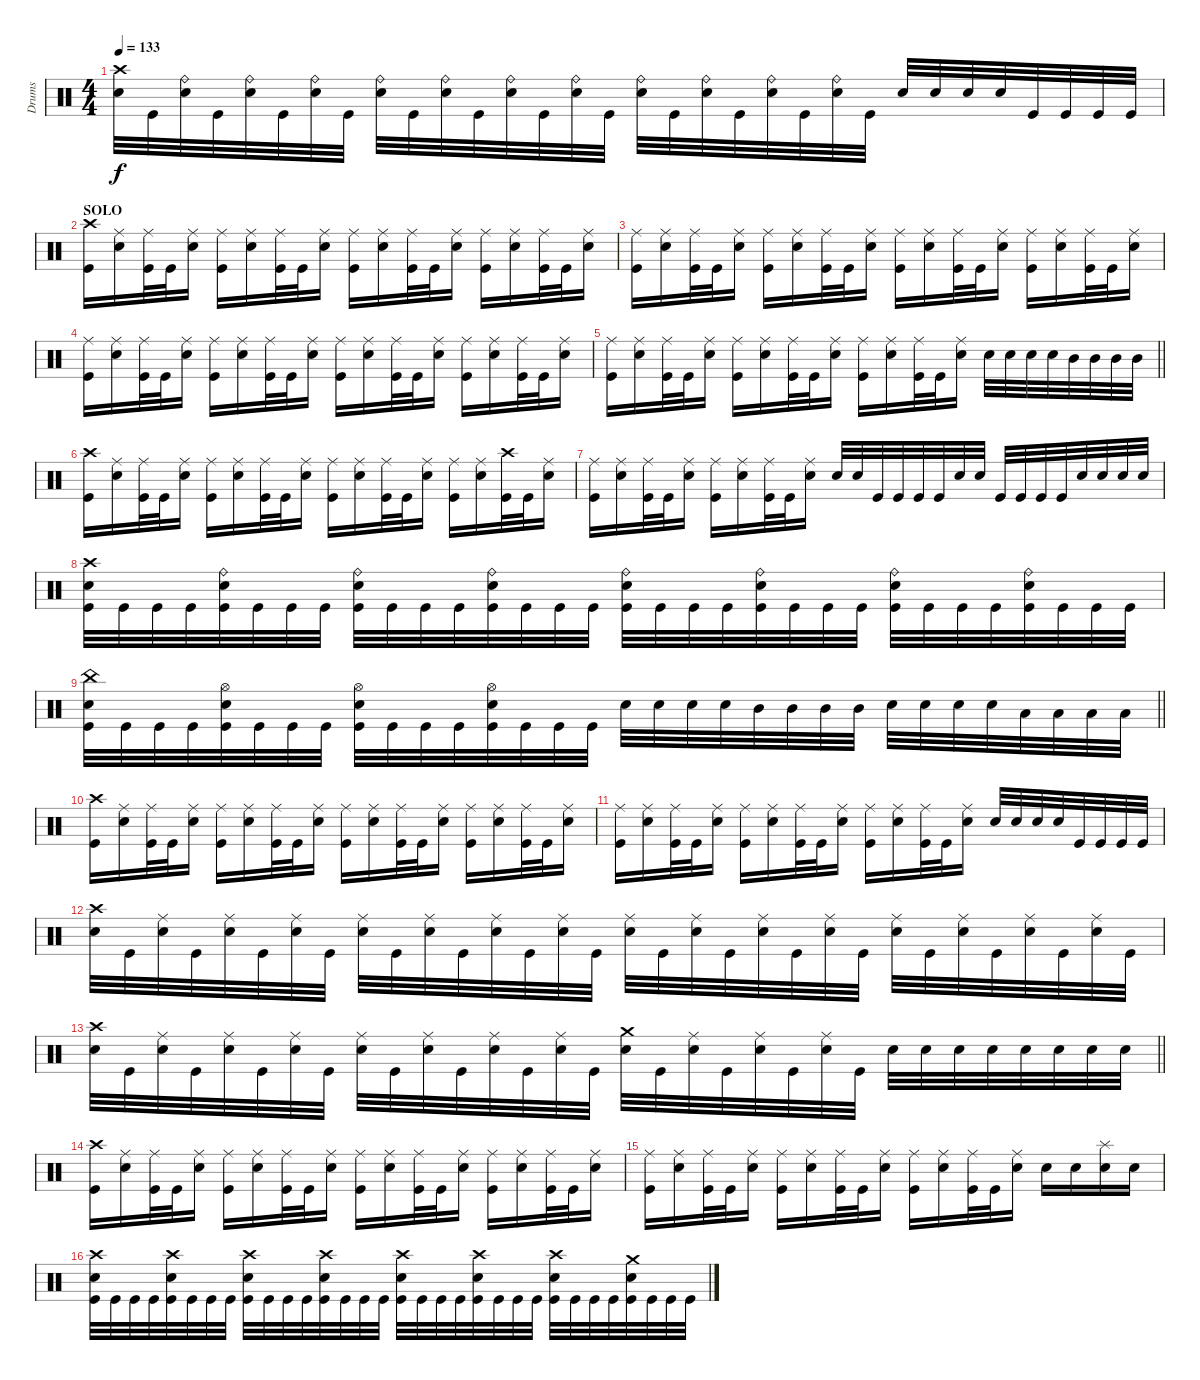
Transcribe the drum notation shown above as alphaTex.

\track ("Drums" "Drums") {instrument percussion}
\staff
\articulation defaults
\ts (4 4)
\tempo 133
\clef neutral
\ks c
("Crash high (hit)" "Electric Snare (hit)").32{dy f} "Kick (hit)".32 ("Ride (bell)" "Electric Snare (hit)").32 "Kick (hit)".32 ("Ride (bell)" "Electric Snare (hit)").32 "Kick (hit)".32 ("Ride (bell)" "Electric Snare (hit)").32 "Kick (hit)".32 ("Ride (bell)" "Electric Snare (hit)").32 "Kick (hit)".32 ("Ride (bell)" "Electric Snare (hit)").32 "Kick (hit)".32 ("Ride (bell)" "Electric Snare (hit)").32 "Kick (hit)".32 ("Ride (bell)" "Electric Snare (hit)").32 "Kick (hit)".32 ("Ride (bell)" "Electric Snare (hit)").32 "Kick (hit)".32 ("Ride (bell)" "Electric Snare (hit)").32 "Kick (hit)".32 ("Ride (bell)" "Electric Snare (hit)").32 "Kick (hit)".32 ("Ride (bell)" "Electric Snare (hit)").32 "Kick (hit)".32 "Electric Snare (hit)".32 "Electric Snare (hit)".32 "Electric Snare (hit)".32 "Electric Snare (hit)".32 "Kick (hit)".32 "Kick (hit)".32 "Kick (hit)".32 "Kick (hit)".32 |
\section ("" "SOLO")
("Crash high (hit)" "Kick (hit)").16 ("Ride (middle)" "Electric Snare (hit)").16 ("Ride (middle)" "Kick (hit)").32 "Kick (hit)".32 ("Ride (middle)" "Electric Snare (hit)").16 ("Ride (middle)" "Kick (hit)").16 ("Ride (middle)" "Electric Snare (hit)").16 ("Ride (middle)" "Kick (hit)").32 "Kick (hit)".32 ("Ride (middle)" "Electric Snare (hit)").16 ("Ride (middle)" "Kick (hit)").16 ("Ride (middle)" "Electric Snare (hit)").16 ("Ride (middle)" "Kick (hit)").32 "Kick (hit)".32 ("Ride (middle)" "Electric Snare (hit)").16 ("Ride (middle)" "Kick (hit)").16 ("Ride (middle)" "Electric Snare (hit)").16 ("Ride (middle)" "Kick (hit)").32 "Kick (hit)".32 ("Ride (middle)" "Electric Snare (hit)").16 |
("Ride (middle)" "Kick (hit)").16 ("Ride (middle)" "Electric Snare (hit)").16 ("Ride (middle)" "Kick (hit)").32 "Kick (hit)".32 ("Ride (middle)" "Electric Snare (hit)").16 ("Ride (middle)" "Kick (hit)").16 ("Ride (middle)" "Electric Snare (hit)").16 ("Ride (middle)" "Kick (hit)").32 "Kick (hit)".32 ("Ride (middle)" "Electric Snare (hit)").16 ("Ride (middle)" "Kick (hit)").16 ("Ride (middle)" "Electric Snare (hit)").16 ("Ride (middle)" "Kick (hit)").32 "Kick (hit)".32 ("Ride (middle)" "Electric Snare (hit)").16 ("Ride (middle)" "Kick (hit)").16 ("Ride (middle)" "Electric Snare (hit)").16 ("Ride (middle)" "Kick (hit)").32 "Kick (hit)".32 ("Ride (middle)" "Electric Snare (hit)").16 |
("Ride (middle)" "Kick (hit)").16 ("Ride (middle)" "Electric Snare (hit)").16 ("Ride (middle)" "Kick (hit)").32 "Kick (hit)".32 ("Ride (middle)" "Electric Snare (hit)").16 ("Ride (middle)" "Kick (hit)").16 ("Ride (middle)" "Electric Snare (hit)").16 ("Ride (middle)" "Kick (hit)").32 "Kick (hit)".32 ("Ride (middle)" "Electric Snare (hit)").16 ("Ride (middle)" "Kick (hit)").16 ("Ride (middle)" "Electric Snare (hit)").16 ("Ride (middle)" "Kick (hit)").32 "Kick (hit)".32 ("Ride (middle)" "Electric Snare (hit)").16 ("Ride (middle)" "Kick (hit)").16 ("Ride (middle)" "Electric Snare (hit)").16 ("Ride (middle)" "Kick (hit)").32 "Kick (hit)".32 ("Ride (middle)" "Electric Snare (hit)").16 |
\barLineRight lightlight
("Ride (middle)" "Kick (hit)").16 ("Ride (middle)" "Electric Snare (hit)").16 ("Ride (middle)" "Kick (hit)").32 "Kick (hit)".32 ("Ride (middle)" "Electric Snare (hit)").16 ("Ride (middle)" "Kick (hit)").16 ("Ride (middle)" "Electric Snare (hit)").16 ("Ride (middle)" "Kick (hit)").32 "Kick (hit)".32 ("Ride (middle)" "Electric Snare (hit)").16 ("Ride (middle)" "Kick (hit)").16 ("Ride (middle)" "Electric Snare (hit)").16 ("Ride (middle)" "Kick (hit)").32 "Kick (hit)".32 ("Ride (middle)" "Electric Snare (hit)").16 "Electric Snare (hit)".32 "Electric Snare (hit)".32 "Electric Snare (hit)".32 "Electric Snare (hit)".32 "Mid Tom (hit)".32 "Mid Tom (hit)".32 "Mid Tom (hit)".32 "Mid Tom (hit)".32 |
("Crash high (hit)" "Kick (hit)").16 ("Ride (middle)" "Electric Snare (hit)").16 ("Ride (middle)" "Kick (hit)").32 "Kick (hit)".32 ("Ride (middle)" "Electric Snare (hit)").16 ("Ride (middle)" "Kick (hit)").16 ("Ride (middle)" "Electric Snare (hit)").16 ("Ride (middle)" "Kick (hit)").32 "Kick (hit)".32 ("Ride (middle)" "Electric Snare (hit)").16 ("Ride (middle)" "Kick (hit)").16 ("Ride (middle)" "Electric Snare (hit)").16 ("Ride (middle)" "Kick (hit)").32 "Kick (hit)".32 ("Ride (middle)" "Electric Snare (hit)").16 ("Ride (middle)" "Kick (hit)").16 ("Ride (middle)" "Electric Snare (hit)").16 ("Crash high (hit)" "Kick (hit)").32 "Kick (hit)".32 ("Ride (middle)" "Electric Snare (hit)").16 |
("Ride (middle)" "Kick (hit)").16 ("Ride (middle)" "Electric Snare (hit)").16 ("Ride (middle)" "Kick (hit)").32 "Kick (hit)".32 ("Ride (middle)" "Electric Snare (hit)").16 ("Ride (middle)" "Kick (hit)").16 ("Ride (middle)" "Electric Snare (hit)").16 ("Ride (middle)" "Kick (hit)").32 "Kick (hit)".32 ("Ride (middle)" "Electric Snare (hit)").16 "Electric Snare (hit)".32 "Electric Snare (hit)".32 "Kick (hit)".32 "Kick (hit)".32 "Kick (hit)".32 "Kick (hit)".32 "Electric Snare (hit)".32 "Electric Snare (hit)".32 "Kick (hit)".32 "Kick (hit)".32 "Kick (hit)".32 "Kick (hit)".32 "Electric Snare (hit)".32 "Electric Snare (hit)".32 "Electric Snare (hit)".32 "Electric Snare (hit)".32 |
("Crash high (hit)" "Electric Snare (hit)" "Kick (hit)").32 "Kick (hit)".32 "Kick (hit)".32 "Kick (hit)".32 ("Ride (bell)" "Electric Snare (hit)" "Kick (hit)").32 "Kick (hit)".32 "Kick (hit)".32 "Kick (hit)".32 ("Ride (bell)" "Electric Snare (hit)" "Kick (hit)").32 "Kick (hit)".32 "Kick (hit)".32 "Kick (hit)".32 ("Ride (bell)" "Electric Snare (hit)" "Kick (hit)").32 "Kick (hit)".32 "Kick (hit)".32 "Kick (hit)".32 ("Ride (bell)" "Electric Snare (hit)" "Kick (hit)").32 "Kick (hit)".32 "Kick (hit)".32 "Kick (hit)".32 ("Ride (bell)" "Electric Snare (hit)" "Kick (hit)").32 "Kick (hit)".32 "Kick (hit)".32 "Kick (hit)".32 ("Ride (bell)" "Electric Snare (hit)" "Kick (hit)").32 "Kick (hit)".32 "Kick (hit)".32 "Kick (hit)".32 ("Ride (bell)" "Electric Snare (hit)" "Kick (hit)").32 "Kick (hit)".32 "Kick (hit)".32 "Kick (hit)".32 |
\barLineRight lightlight
("China (hit)" "Electric Snare (hit)" "Kick (hit)").32 "Kick (hit)".32 "Kick (hit)".32 "Kick (hit)".32 ("Hi-Hat (open)" "Electric Snare (hit)" "Kick (hit)").32 "Kick (hit)".32 "Kick (hit)".32 "Kick (hit)".32 ("Hi-Hat (open)" "Electric Snare (hit)" "Kick (hit)").32 "Kick (hit)".32 "Kick (hit)".32 "Kick (hit)".32 ("Hi-Hat (open)" "Electric Snare (hit)" "Kick (hit)").32 "Kick (hit)".32 "Kick (hit)".32 "Kick (hit)".32 "Electric Snare (hit)".32 "Electric Snare (hit)".32 "Electric Snare (hit)".32 "Electric Snare (hit)".32 "Mid Tom (hit)".32 "Mid Tom (hit)".32 "Mid Tom (hit)".32 "Mid Tom (hit)".32 "Electric Snare (hit)".32 "Electric Snare (hit)".32 "Electric Snare (hit)".32 "Electric Snare (hit)".32 "Low Tom (hit)".32 "Low Tom (hit)".32 "Low Tom (hit)".32 "Low Tom (hit)".32 |
("Crash high (hit)" "Kick (hit)").16 ("Ride (middle)" "Electric Snare (hit)").16 ("Ride (middle)" "Kick (hit)").32 "Kick (hit)".32 ("Ride (middle)" "Electric Snare (hit)").16 ("Ride (middle)" "Kick (hit)").16 ("Ride (middle)" "Electric Snare (hit)").16 ("Ride (middle)" "Kick (hit)").32 "Kick (hit)".32 ("Ride (middle)" "Electric Snare (hit)").16 ("Ride (middle)" "Kick (hit)").16 ("Ride (middle)" "Electric Snare (hit)").16 ("Ride (middle)" "Kick (hit)").32 "Kick (hit)".32 ("Ride (middle)" "Electric Snare (hit)").16 ("Ride (middle)" "Kick (hit)").16 ("Ride (middle)" "Electric Snare (hit)").16 ("Ride (middle)" "Kick (hit)").32 "Kick (hit)".32 ("Ride (middle)" "Electric Snare (hit)").16 |
("Ride (middle)" "Kick (hit)").16 ("Ride (middle)" "Electric Snare (hit)").16 ("Ride (middle)" "Kick (hit)").32 "Kick (hit)".32 ("Ride (middle)" "Electric Snare (hit)").16 ("Ride (middle)" "Kick (hit)").16 ("Ride (middle)" "Electric Snare (hit)").16 ("Ride (middle)" "Kick (hit)").32 "Kick (hit)".32 ("Ride (middle)" "Electric Snare (hit)").16 ("Ride (middle)" "Kick (hit)").16 ("Ride (middle)" "Electric Snare (hit)").16 ("Ride (middle)" "Kick (hit)").32 "Kick (hit)".32 ("Ride (middle)" "Electric Snare (hit)").16 "Electric Snare (hit)".32 "Electric Snare (hit)".32 "Electric Snare (hit)".32 "Electric Snare (hit)".32 "Kick (hit)".32 "Kick (hit)".32 "Kick (hit)".32 "Kick (hit)".32 |
("Crash high (hit)" "Electric Snare (hit)").32 "Kick (hit)".32 ("Ride (middle)" "Electric Snare (hit)").32 "Kick (hit)".32 ("Ride (middle)" "Electric Snare (hit)").32 "Kick (hit)".32 ("Ride (middle)" "Electric Snare (hit)").32 "Kick (hit)".32 ("Ride (middle)" "Electric Snare (hit)").32 "Kick (hit)".32 ("Ride (middle)" "Electric Snare (hit)").32 "Kick (hit)".32 ("Ride (middle)" "Electric Snare (hit)").32 "Kick (hit)".32 ("Ride (middle)" "Electric Snare (hit)").32 "Kick (hit)".32 ("Ride (middle)" "Electric Snare (hit)").32 "Kick (hit)".32 ("Ride (middle)" "Electric Snare (hit)").32 "Kick (hit)".32 ("Ride (middle)" "Electric Snare (hit)").32 "Kick (hit)".32 ("Ride (middle)" "Electric Snare (hit)").32 "Kick (hit)".32 ("Ride (middle)" "Electric Snare (hit)").32 "Kick (hit)".32 ("Ride (middle)" "Electric Snare (hit)").32 "Kick (hit)".32 ("Ride (middle)" "Electric Snare (hit)").32 "Kick (hit)".32 ("Ride (middle)" "Electric Snare (hit)").32 "Kick (hit)".32 |
\barLineRight lightlight
("Crash high (hit)" "Electric Snare (hit)").32 "Kick (hit)".32 ("Ride (middle)" "Electric Snare (hit)").32 "Kick (hit)".32 ("Ride (middle)" "Electric Snare (hit)").32 "Kick (hit)".32 ("Ride (middle)" "Electric Snare (hit)").32 "Kick (hit)".32 ("Ride (middle)" "Electric Snare (hit)").32 "Kick (hit)".32 ("Ride (middle)" "Electric Snare (hit)").32 "Kick (hit)".32 ("Ride (middle)" "Electric Snare (hit)").32 "Kick (hit)".32 ("Ride (middle)" "Electric Snare (hit)").32 "Kick (hit)".32 ("Crash medium (hit)" "Electric Snare (hit)").32 "Kick (hit)".32 ("Ride (middle)" "Electric Snare (hit)").32 "Kick (hit)".32 ("Ride (middle)" "Electric Snare (hit)").32 "Kick (hit)".32 ("Ride (middle)" "Electric Snare (hit)").32 "Kick (hit)".32 "Electric Snare (hit)".32 "Electric Snare (hit)".32 "Electric Snare (hit)".32 "Electric Snare (hit)".32 "Electric Snare (hit)".32 "Electric Snare (hit)".32 "Electric Snare (hit)".32 "Electric Snare (hit)".32 |
("Crash high (hit)" "Kick (hit)").16 ("Ride (middle)" "Electric Snare (hit)").16 ("Ride (middle)" "Kick (hit)").32 "Kick (hit)".32 ("Ride (middle)" "Electric Snare (hit)").16 ("Ride (middle)" "Kick (hit)").16 ("Ride (middle)" "Electric Snare (hit)").16 ("Ride (middle)" "Kick (hit)").32 "Kick (hit)".32 ("Ride (middle)" "Electric Snare (hit)").16 ("Ride (middle)" "Kick (hit)").16 ("Ride (middle)" "Electric Snare (hit)").16 ("Ride (middle)" "Kick (hit)").32 "Kick (hit)".32 ("Ride (middle)" "Electric Snare (hit)").16 ("Ride (middle)" "Kick (hit)").16 ("Ride (middle)" "Electric Snare (hit)").16 ("Ride (middle)" "Kick (hit)").32 "Kick (hit)".32 ("Ride (middle)" "Electric Snare (hit)").16 |
("Ride (middle)" "Kick (hit)").16 ("Ride (middle)" "Electric Snare (hit)").16 ("Ride (middle)" "Kick (hit)").32 "Kick (hit)".32 ("Ride (middle)" "Electric Snare (hit)").16 ("Ride (middle)" "Kick (hit)").16 ("Ride (middle)" "Electric Snare (hit)").16 ("Ride (middle)" "Kick (hit)").32 "Kick (hit)".32 ("Ride (middle)" "Electric Snare (hit)").16 ("Ride (middle)" "Kick (hit)").16 ("Ride (middle)" "Electric Snare (hit)").16 ("Ride (middle)" "Kick (hit)").32 "Kick (hit)".32 ("Ride (middle)" "Electric Snare (hit)").16 "Electric Snare (hit)".16 "Electric Snare (hit)".16 ("Splash (hit)" "Electric Snare (hit)").16 "Electric Snare (hit)".16 |
("Crash high (hit)" "Electric Snare (hit)" "Kick (hit)").32 "Kick (hit)".32 "Kick (hit)".32 "Kick (hit)".32 ("Crash high (hit)" "Electric Snare (hit)" "Kick (hit)").32 "Kick (hit)".32 "Kick (hit)".32 "Kick (hit)".32 ("Crash high (hit)" "Electric Snare (hit)" "Kick (hit)").32 "Kick (hit)".32 "Kick (hit)".32 "Kick (hit)".32 ("Crash high (hit)" "Electric Snare (hit)" "Kick (hit)").32 "Kick (hit)".32 "Kick (hit)".32 "Kick (hit)".32 ("Crash high (hit)" "Electric Snare (hit)" "Kick (hit)").32 "Kick (hit)".32 "Kick (hit)".32 "Kick (hit)".32 ("Crash high (hit)" "Electric Snare (hit)" "Kick (hit)").32 "Kick (hit)".32 "Kick (hit)".32 "Kick (hit)".32 ("Crash high (hit)" "Electric Snare (hit)" "Kick (hit)").32 "Kick (hit)".32 "Kick (hit)".32 "Kick (hit)".32 ("Crash medium (hit)" "Electric Snare (hit)" "Kick (hit)").32 "Kick (hit)".32 "Kick (hit)".32 "Kick (hit)".32
